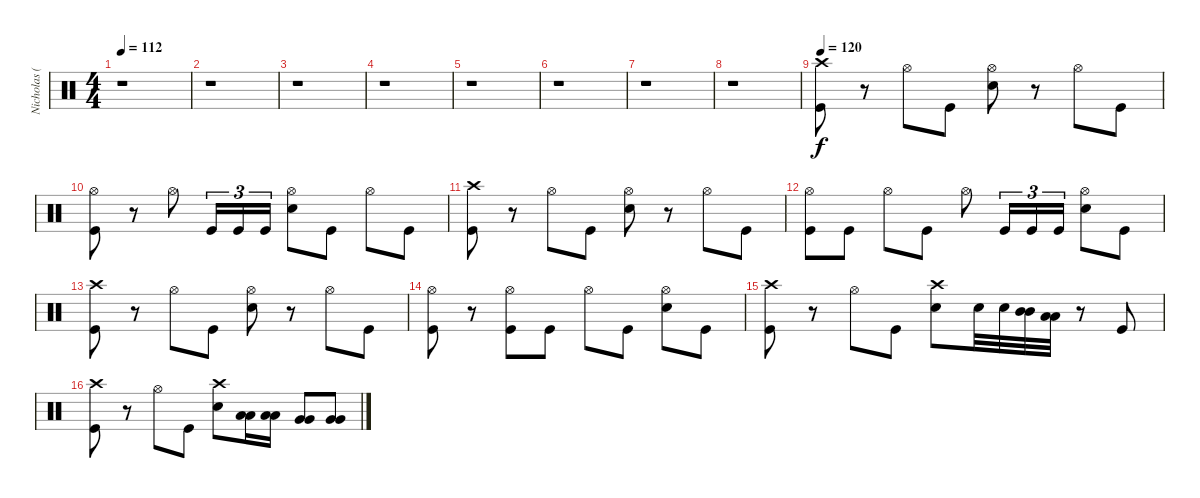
\track ("Nicholas (Drums)" "Nicholas (") {instrument percussion}
\staff {score}
\articulation defaults
\ts (4 4)
\tempo 112
\clef neutral
\ks c
r.1{dy f} |
r.1 |
r.1 |
r.1 |
r.1 |
r.1 |
r.1 |
r.1 |
\tempo 120
("Crash high (hit)" "Kick (hit)").8 r.8 "Hi-Hat (open)".8 "Kick (hit)".8 ("Hi-Hat (open)" "Electric Snare (hit)").8 r.8 "Hi-Hat (open)".8 "Kick (hit)".8 |
("Hi-Hat (open)" "Kick (hit)").8 r.8 "Hi-Hat (open)".8 "Kick (hit)".16{tu (3 2)} "Kick (hit)".16{tu (3 2)} "Kick (hit)".16{tu (3 2)} ("Hi-Hat (open)" "Electric Snare (hit)").8 "Kick (hit)".8 "Hi-Hat (open)".8 "Kick (hit)".8 |
("Crash high (hit)" "Kick (hit)").8 r.8 "Hi-Hat (open)".8 "Kick (hit)".8 ("Hi-Hat (open)" "Electric Snare (hit)").8 r.8 "Hi-Hat (open)".8 "Kick (hit)".8 |
("Hi-Hat (open)" "Kick (hit)").8 "Kick (hit)".8 "Hi-Hat (open)".8 "Kick (hit)".8 "Hi-Hat (open)".8 "Kick (hit)".16{tu (3 2)} "Kick (hit)".16{tu (3 2)} "Kick (hit)".16{tu (3 2)} ("Hi-Hat (open)" "Electric Snare (hit)").8 "Kick (hit)".8 |
("Crash high (hit)" "Kick (hit)").8 r.8 "Hi-Hat (open)".8 "Kick (hit)".8 ("Hi-Hat (open)" "Electric Snare (hit)").8 r.8 "Hi-Hat (open)".8 "Kick (hit)".8 |
("Hi-Hat (open)" "Kick (hit)").8 r.8 ("Hi-Hat (open)" "Kick (hit)").8 "Kick (hit)".8 "Hi-Hat (open)".8 "Kick (hit)".8 ("Hi-Hat (open)" "Electric Snare (hit)").8 "Kick (hit)".8 |
("Crash high (hit)" "Kick (hit)").8 r.8 "Hi-Hat (open)".8 "Kick (hit)".8 ("Crash high (hit)" "Electric Snare (hit)").8 "Electric Snare (hit)".32 "Electric Snare (hit)".32 ("Mid Tom (hit)" "Mid Tom (hit)").32 ("Low Tom (hit)" "Low Tom (hit)").32 r.8 "Kick (hit)".8 |
("Crash high (hit)" "Kick (hit)").8 r.8 "Hi-Hat (open)".8 "Kick (hit)".8 ("Crash high (hit)" "Electric Snare (hit)").8 ("Low Tom (hit)" "Low Tom (hit)").16 ("Low Tom (hit)" "Low Tom (hit)").16 ("Very Low Tom (hit)" "Very Low Tom (hit)").8 ("Very Low Tom (hit)" "Very Low Tom (hit)").8
